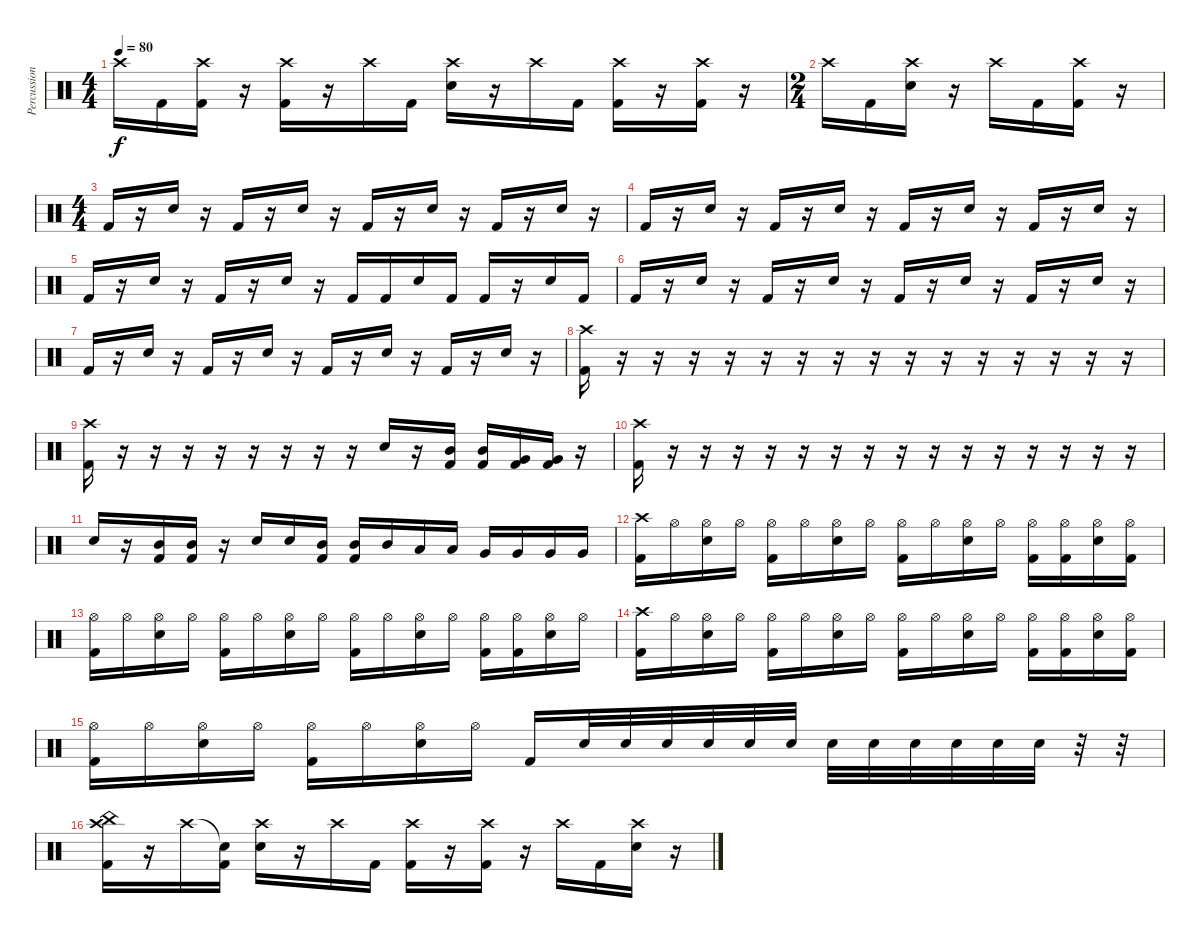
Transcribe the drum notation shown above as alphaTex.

\track ("Percussion" "Percussion") {instrument percussion}
\staff {score}
\articulation defaults
\ts (4 4)
\tempo 80
\clef neutral
\ks c "Crash high (hit)".16{dy f} "Kick (hit) 2".16
("Crash high (hit)" "Kick (hit) 2").16 r.16 ("Crash high (hit)" "Kick (hit) 2").16 r.16 "Crash high (hit)".16 "Kick (hit) 2".16 ("Crash high (hit)" "Electric Snare (hit)").16 r.16 "Crash high (hit)".16 "Kick (hit) 2".16 ("Crash high (hit)" "Kick (hit) 2").16 r.16 ("Crash high (hit)" "Kick (hit) 2").16 r.16 |
\ts (2 4)
"Crash high (hit)".16 "Kick (hit) 2".16 ("Crash high (hit)" "Electric Snare (hit)").16 r.16 "Crash high (hit)".16 "Kick (hit) 2".16 ("Crash high (hit)" "Kick (hit) 2").16 r.16 |
\ts (4 4)
"Kick (hit) 2".16 r.16 "Electric Snare (hit)".16 r.16 "Kick (hit) 2".16 r.16 "Electric Snare (hit)".16 r.16 "Kick (hit) 2".16 r.16 "Electric Snare (hit)".16 r.16 "Kick (hit) 2".16 r.16 "Electric Snare (hit)".16 r.16 |
"Kick (hit) 2".16 r.16 "Electric Snare (hit)".16 r.16 "Kick (hit) 2".16 r.16 "Electric Snare (hit)".16 r.16 "Kick (hit) 2".16 r.16 "Electric Snare (hit)".16 r.16 "Kick (hit) 2".16 r.16 "Electric Snare (hit)".16 r.16 |
"Kick (hit) 2".16 r.16 "Electric Snare (hit)".16 r.16 "Kick (hit) 2".16 r.16 "Electric Snare (hit)".16 r.16 "Kick (hit) 2".16 "Kick (hit) 2".16 "Electric Snare (hit)".16 "Kick (hit) 2".16 "Kick (hit) 2".16 r.16 "Electric Snare (hit)".16 "Kick (hit) 2".16 |
"Kick (hit) 2".16 r.16 "Electric Snare (hit)".16 r.16 "Kick (hit) 2".16 r.16 "Electric Snare (hit)".16 r.16 "Kick (hit) 2".16 r.16 "Electric Snare (hit)".16 r.16 "Kick (hit) 2".16 r.16 "Electric Snare (hit)".16 r.16 |
"Kick (hit) 2".16 r.16 "Electric Snare (hit)".16 r.16 "Kick (hit) 2".16 r.16 "Electric Snare (hit)".16 r.16 "Kick (hit) 2".16 r.16 "Electric Snare (hit)".16 r.16 "Kick (hit) 2".16 r.16 "Electric Snare (hit)".16 r.16 |
("Crash high (hit)" "Kick (hit) 2").16 r.16 r.16 r.16 r.16 r.16 r.16 r.16 r.16 r.16 r.16 r.16 r.16 r.16 r.16 r.16 |
("Crash high (hit)" "Kick (hit) 2").16 r.16 r.16 r.16 r.16 r.16 r.16 r.16 r.16 "Electric Snare (hit)".16 r.16 ("Mid Tom (hit)" "Kick (hit) 2").16 ("Mid Tom (hit)" "Kick (hit) 2").16 ("Very Low Tom (hit)" "Kick (hit) 2").16 ("Very Low Tom (hit)" "Kick (hit) 2").16 r.16 |
("Crash high (hit)" "Kick (hit) 2").16 r.16 r.16 r.16 r.16 r.16 r.16 r.16 r.16 r.16 r.16 r.16 r.16 r.16 r.16 r.16 |
"Electric Snare (hit)".16 r.16 ("Mid Tom (hit)" "Kick (hit) 2").16 ("Mid Tom (hit)" "Kick (hit) 2").16 r.16 "Electric Snare (hit)".16 "Electric Snare (hit)".16 ("Mid Tom (hit)" "Kick (hit) 2").16 ("Mid Tom (hit)" "Kick (hit) 2").16 "Mid Tom (hit)".16 "Low Tom (hit)".16 "Low Tom (hit)".16 "Very Low Tom (hit)".16 "Very Low Tom (hit)".16 "Very Low Tom (hit)".16 "Very Low Tom (hit)".16 |
("Crash high (hit)" "Kick (hit) 2").16 "Hi-Hat (open)".16 ("Hi-Hat (open)" "Electric Snare (hit)").16 "Hi-Hat (open)".16 ("Hi-Hat (open)" "Kick (hit) 2").16 "Hi-Hat (open)".16 ("Hi-Hat (open)" "Electric Snare (hit)").16 "Hi-Hat (open)".16 ("Hi-Hat (open)" "Kick (hit) 2").16 "Hi-Hat (open)".16 ("Hi-Hat (open)" "Electric Snare (hit)").16 "Hi-Hat (open)".16 ("Hi-Hat (open)" "Kick (hit) 2").16 ("Hi-Hat (open)" "Kick (hit) 2").16 ("Hi-Hat (open)" "Electric Snare (hit)").16 ("Hi-Hat (open)" "Kick (hit) 2").16 |
("Hi-Hat (open)" "Kick (hit) 2").16 "Hi-Hat (open)".16 ("Hi-Hat (open)" "Electric Snare (hit)").16 "Hi-Hat (open)".16 ("Hi-Hat (open)" "Kick (hit) 2").16 "Hi-Hat (open)".16 ("Hi-Hat (open)" "Electric Snare (hit)").16 "Hi-Hat (open)".16 ("Hi-Hat (open)" "Kick (hit) 2").16 "Hi-Hat (open)".16 ("Hi-Hat (open)" "Electric Snare (hit)").16 "Hi-Hat (open)".16 ("Hi-Hat (open)" "Kick (hit) 2").16 ("Hi-Hat (open)" "Kick (hit) 2").16 ("Hi-Hat (open)" "Electric Snare (hit)").16 "Hi-Hat (open)".16 |
("Crash high (hit)" "Kick (hit) 2").16 "Hi-Hat (open)".16 ("Hi-Hat (open)" "Electric Snare (hit)").16 "Hi-Hat (open)".16 ("Hi-Hat (open)" "Kick (hit) 2").16 "Hi-Hat (open)".16 ("Hi-Hat (open)" "Electric Snare (hit)").16 "Hi-Hat (open)".16 ("Hi-Hat (open)" "Kick (hit) 2").16 "Hi-Hat (open)".16 ("Hi-Hat (open)" "Electric Snare (hit)").16 "Hi-Hat (open)".16 ("Hi-Hat (open)" "Kick (hit) 2").16 ("Hi-Hat (open)" "Kick (hit) 2").16 ("Hi-Hat (open)" "Electric Snare (hit)").16 ("Hi-Hat (open)" "Kick (hit) 2").16 |
("Hi-Hat (open)" "Kick (hit) 2").16 "Hi-Hat (open)".16 ("Hi-Hat (open)" "Electric Snare (hit)").16 "Hi-Hat (open)".16 ("Hi-Hat (open)" "Kick (hit) 2").16 "Hi-Hat (open)".16 ("Hi-Hat (open)" "Electric Snare (hit)").16 "Hi-Hat (open)".16 "Kick (hit) 2".16 "Electric Snare (hit)".32 "Electric Snare (hit)".32 "Electric Snare (hit)".32 "Electric Snare (hit)".32 "Electric Snare (hit)".32 "Electric Snare (hit)".32 "Electric Snare (hit)".32 "Electric Snare (hit)".32 "Electric Snare (hit)".32 "Electric Snare (hit)".32 "Electric Snare (hit)".32 "Electric Snare (hit)".32 r.32 r.32 |
("China (hit)" "Crash high (hit)" "Kick (hit) 2").16 r.16 "Crash high (hit)".16 ("Snare (hit)"{t} "Kick (hit) 2").16 ("Crash high (hit)" "Electric Snare (hit)").16 r.16 "Crash high (hit)".16 "Kick (hit) 2".16 ("Crash high (hit)" "Kick (hit) 2").16 r.16 ("Crash high (hit)" "Kick (hit) 2").16 r.16 "Crash high (hit)".16 "Kick (hit) 2".16 ("Crash high (hit)" "Electric Snare (hit)").16 r.16
